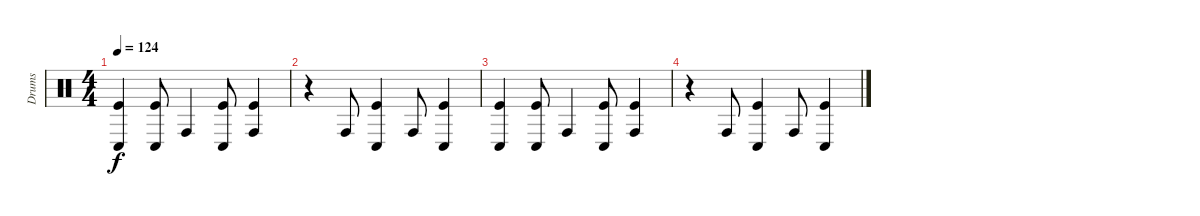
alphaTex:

\track ("Drums" "Drums") {instrument percussion}
\staff {score}
\articulation defaults
\ts (4 4)
\tempo 124
\clef neutral
\ks c
("Conga low (hit)" "Kick (hit)").4{dy f} ("Conga low (hit)" "Kick (hit)").8 "Conga high (hit)".4 ("Conga low (hit)" "Kick (hit)").8 ("Conga high (hit)" "Kick (hit)").4 |
r.4 "Conga high (hit)".8 ("Conga low (hit)" "Kick (hit)").4 "Conga high (hit)".8 ("Conga low (hit)" "Kick (hit)").4 |
("Conga low (hit)" "Kick (hit)").4 ("Conga low (hit)" "Kick (hit)").8 "Conga high (hit)".4 ("Conga low (hit)" "Kick (hit)").8 ("Conga high (hit)" "Kick (hit)").4 |
r.4 "Conga high (hit)".8 ("Conga low (hit)" "Kick (hit)").4 "Conga high (hit)".8 ("Conga low (hit)" "Kick (hit)").4
